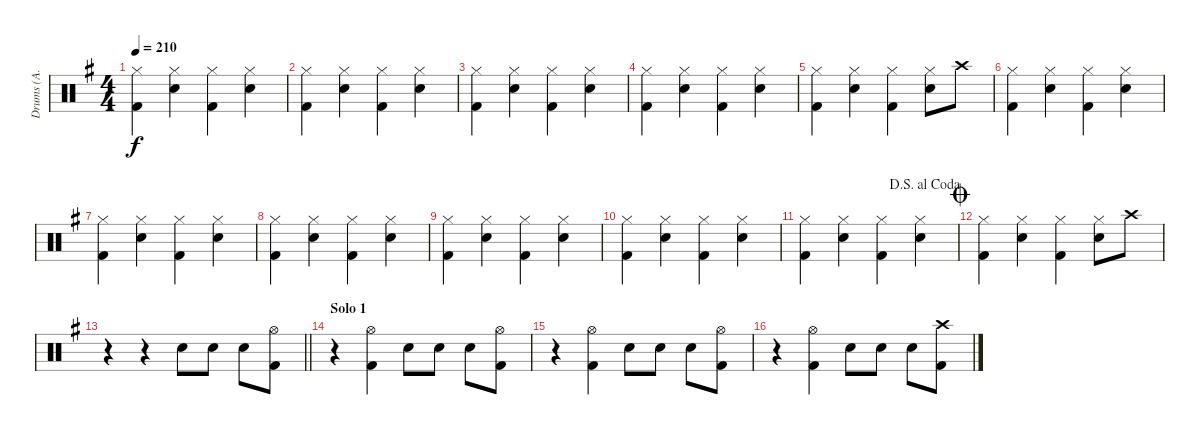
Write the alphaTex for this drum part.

\track ("Drums (А. Манякин)" "Drums (А. ") {instrument percussion}
\staff {score}
\articulation defaults
\ts (4 4)
\tempo 210
\clef neutral
\ks g
("Hi-Hat (closed)" "Kick (hit) 2").4{dy f} ("Hi-Hat (closed)" "Snare (hit) 2").4 ("Hi-Hat (closed)" "Kick (hit) 2").4 ("Hi-Hat (closed)" "Snare (hit) 2").4 |
("Hi-Hat (closed)" "Kick (hit) 2").4 ("Hi-Hat (closed)" "Snare (hit) 2").4 ("Hi-Hat (closed)" "Kick (hit) 2").4 ("Hi-Hat (closed)" "Snare (hit) 2").4 |
("Hi-Hat (closed)" "Kick (hit) 2").4 ("Hi-Hat (closed)" "Snare (hit) 2").4 ("Hi-Hat (closed)" "Kick (hit) 2").4 ("Hi-Hat (closed)" "Snare (hit) 2").4 |
("Hi-Hat (closed)" "Kick (hit) 2").4 ("Hi-Hat (closed)" "Snare (hit) 2").4 ("Hi-Hat (closed)" "Kick (hit) 2").4 ("Hi-Hat (closed)" "Snare (hit) 2").4 |
("Hi-Hat (closed)" "Kick (hit) 2").4 ("Hi-Hat (closed)" "Snare (hit) 2").4 ("Hi-Hat (closed)" "Kick (hit) 2").4 ("Hi-Hat (closed)" "Snare (hit) 2").8 "Crash high (hit)".8 |
("Hi-Hat (closed)" "Kick (hit) 2").4 ("Hi-Hat (closed)" "Snare (hit) 2").4 ("Hi-Hat (closed)" "Kick (hit) 2").4 ("Hi-Hat (closed)" "Snare (hit) 2").4 |
("Hi-Hat (closed)" "Kick (hit) 2").4 ("Hi-Hat (closed)" "Snare (hit) 2").4 ("Hi-Hat (closed)" "Kick (hit) 2").4 ("Hi-Hat (closed)" "Snare (hit) 2").4 |
("Hi-Hat (closed)" "Kick (hit) 2").4 ("Hi-Hat (closed)" "Snare (hit) 2").4 ("Hi-Hat (closed)" "Kick (hit) 2").4 ("Hi-Hat (closed)" "Snare (hit) 2").4 |
("Hi-Hat (closed)" "Kick (hit) 2").4 ("Hi-Hat (closed)" "Snare (hit) 2").4 ("Hi-Hat (closed)" "Kick (hit) 2").4 ("Hi-Hat (closed)" "Snare (hit) 2").4 |
("Hi-Hat (closed)" "Kick (hit) 2").4 ("Hi-Hat (closed)" "Snare (hit) 2").4 ("Hi-Hat (closed)" "Kick (hit) 2").4 ("Hi-Hat (closed)" "Snare (hit) 2").4 |
\jump dalsegnoalcoda
("Hi-Hat (closed)" "Kick (hit) 2").4 ("Hi-Hat (closed)" "Snare (hit) 2").4 ("Hi-Hat (closed)" "Kick (hit) 2").4 ("Hi-Hat (closed)" "Snare (hit) 2").4 |
\jump coda
("Hi-Hat (closed)" "Kick (hit) 2").4 ("Hi-Hat (closed)" "Snare (hit) 2").4 ("Hi-Hat (closed)" "Kick (hit) 2").4 ("Hi-Hat (closed)" "Snare (hit) 2").8 "Crash high (hit)".8 |
\barLineRight lightlight
r.4 r.4 "Snare (hit) 2".8 "Snare (hit) 2".8 "Snare (hit) 2".8 ("Hi-Hat (open)" "Kick (hit) 2").8 |
\section ("" "Solo 1")
r.4 ("Hi-Hat (open)" "Kick (hit) 2").4 "Snare (hit) 2".8 "Snare (hit) 2".8 "Snare (hit) 2".8 ("Hi-Hat (open)" "Kick (hit) 2").8 |
r.4 ("Hi-Hat (open)" "Kick (hit) 2").4 "Snare (hit) 2".8 "Snare (hit) 2".8 "Snare (hit) 2".8 ("Hi-Hat (open)" "Kick (hit) 2").8 |
r.4 ("Hi-Hat (open)" "Kick (hit) 2").4 "Snare (hit) 2".8 "Snare (hit) 2".8 "Snare (hit) 2".8 ("Crash high (hit)" "Kick (hit) 2").8
